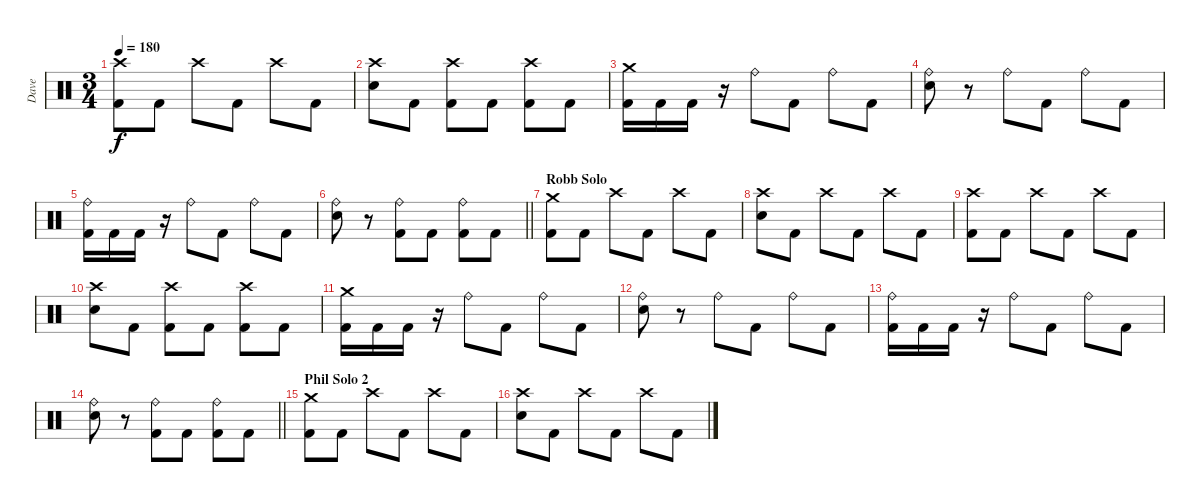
\track ("Dave" "Dave") {instrument percussion}
\staff {score}
\articulation defaults
\ts (3 4)
\tempo 180
\clef neutral
\ks c
("Kick (hit) 2" "Crash high (hit)").8{dy f} "Kick (hit) 2".8 "Crash high (hit)".8 "Kick (hit) 2".8 "Crash high (hit)".8 "Kick (hit) 2".8 |
("Electric Snare (hit)" "Crash high (hit)").8 "Kick (hit) 2".8 ("Kick (hit) 2" "Crash high (hit)").8 "Kick (hit) 2".8 ("Kick (hit) 2" "Crash high (hit)").8 "Kick (hit) 2".8 |
("Kick (hit) 2" "Crash medium (hit)").16 "Kick (hit) 2".16 "Kick (hit) 2".16 r.16 "Ride (bell)".8 "Kick (hit) 2".8 "Ride (bell)".8 "Kick (hit) 2".8 |
("Electric Snare (hit)" "Ride (bell)").8 r.8 "Ride (bell)".8 "Kick (hit) 2".8 "Ride (bell)".8 "Kick (hit) 2".8 |
("Kick (hit) 2" "Ride (bell)").16 "Kick (hit) 2".16 "Kick (hit) 2".16 r.16 "Ride (bell)".8 "Kick (hit) 2".8 "Ride (bell)".8 "Kick (hit) 2".8 |
\barLineRight lightlight
("Electric Snare (hit)" "Ride (bell)").8 r.8 ("Kick (hit) 2" "Ride (bell)").8 "Kick (hit) 2".8 ("Kick (hit) 2" "Ride (bell)").8 "Kick (hit) 2".8 |
\section ("" "Robb Solo")
("Kick (hit) 2" "Crash medium (hit)").8 "Kick (hit) 2".8 "Crash high (hit)".8 "Kick (hit) 2".8 "Crash high (hit)".8 "Kick (hit) 2".8 |
("Electric Snare (hit)" "Crash high (hit)").8 "Kick (hit) 2".8 "Crash high (hit)".8 "Kick (hit) 2".8 "Crash high (hit)".8 "Kick (hit) 2".8 |
("Kick (hit) 2" "Crash high (hit)").8 "Kick (hit) 2".8 "Crash high (hit)".8 "Kick (hit) 2".8 "Crash high (hit)".8 "Kick (hit) 2".8 |
("Electric Snare (hit)" "Crash high (hit)").8 "Kick (hit) 2".8 ("Kick (hit) 2" "Crash high (hit)").8 "Kick (hit) 2".8 ("Kick (hit) 2" "Crash high (hit)").8 "Kick (hit) 2".8 |
("Kick (hit) 2" "Crash medium (hit)").16 "Kick (hit) 2".16 "Kick (hit) 2".16 r.16 "Ride (bell)".8 "Kick (hit) 2".8 "Ride (bell)".8 "Kick (hit) 2".8 |
("Electric Snare (hit)" "Ride (bell)").8 r.8 "Ride (bell)".8 "Kick (hit) 2".8 "Ride (bell)".8 "Kick (hit) 2".8 |
("Kick (hit) 2" "Ride (bell)").16 "Kick (hit) 2".16 "Kick (hit) 2".16 r.16 "Ride (bell)".8 "Kick (hit) 2".8 "Ride (bell)".8 "Kick (hit) 2".8 |
\barLineRight lightlight
("Electric Snare (hit)" "Ride (bell)").8 r.8 ("Kick (hit) 2" "Ride (bell)").8 "Kick (hit) 2".8 ("Kick (hit) 2" "Ride (bell)").8 "Kick (hit) 2".8 |
\section ("" "Phil Solo 2")
("Kick (hit) 2" "Crash medium (hit)").8 "Kick (hit) 2".8 "Crash high (hit)".8 "Kick (hit) 2".8 "Crash high (hit)".8 "Kick (hit) 2".8 |
("Electric Snare (hit)" "Crash high (hit)").8 "Kick (hit) 2".8 "Crash high (hit)".8 "Kick (hit) 2".8 "Crash high (hit)".8 "Kick (hit) 2".8
